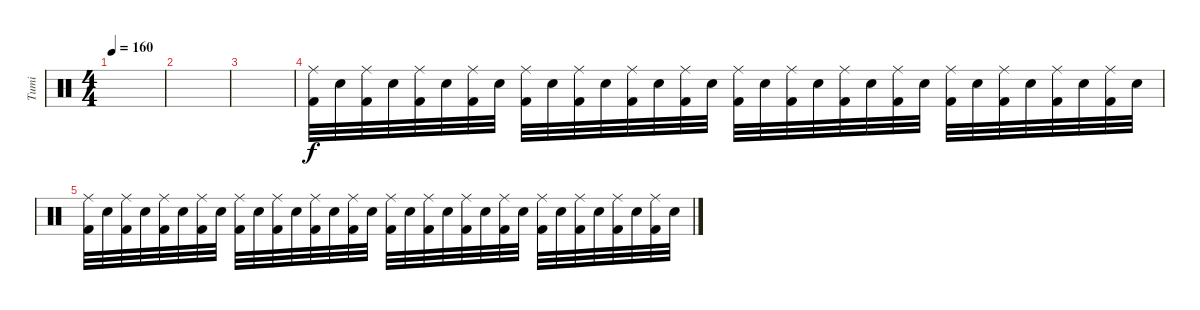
\track ("Tumi" "Tumi") {instrument percussion}
\staff {score}
\articulation defaults
\ts (4 4)
\tempo 160
\clef neutral
\ks c
|
|
|
("Ride (middle)" "Kick (hit) 2").32 "Electric Snare (hit)".32 ("Ride (middle)" "Kick (hit) 2").32 "Electric Snare (hit)".32 ("Ride (middle)" "Kick (hit) 2").32 "Electric Snare (hit)".32 ("Ride (middle)" "Kick (hit) 2").32 "Electric Snare (hit)".32 ("Ride (middle)" "Kick (hit) 2").32 "Electric Snare (hit)".32 ("Ride (middle)" "Kick (hit) 2").32 "Electric Snare (hit)".32 ("Ride (middle)" "Kick (hit) 2").32 "Electric Snare (hit)".32 ("Ride (middle)" "Kick (hit) 2").32 "Electric Snare (hit)".32 ("Ride (middle)" "Kick (hit) 2").32 "Electric Snare (hit)".32 ("Ride (middle)" "Kick (hit) 2").32 "Electric Snare (hit)".32 ("Ride (middle)" "Kick (hit) 2").32 "Electric Snare (hit)".32 ("Ride (middle)" "Kick (hit) 2").32 "Electric Snare (hit)".32 ("Ride (middle)" "Kick (hit) 2").32 "Electric Snare (hit)".32 ("Ride (middle)" "Kick (hit) 2").32 "Electric Snare (hit)".32 ("Ride (middle)" "Kick (hit) 2").32 "Electric Snare (hit)".32 ("Ride (middle)" "Kick (hit) 2").32 "Electric Snare (hit)".32 |
("Ride (middle)" "Kick (hit) 2").32 "Electric Snare (hit)".32 ("Ride (middle)" "Kick (hit) 2").32 "Electric Snare (hit)".32 ("Ride (middle)" "Kick (hit) 2").32 "Electric Snare (hit)".32 ("Ride (middle)" "Kick (hit) 2").32 "Electric Snare (hit)".32 ("Ride (middle)" "Kick (hit) 2").32 "Electric Snare (hit)".32 ("Ride (middle)" "Kick (hit) 2").32 "Electric Snare (hit)".32 ("Ride (middle)" "Kick (hit) 2").32 "Electric Snare (hit)".32 ("Ride (middle)" "Kick (hit) 2").32 "Electric Snare (hit)".32 ("Ride (middle)" "Kick (hit) 2").32 "Electric Snare (hit)".32 ("Ride (middle)" "Kick (hit) 2").32 "Electric Snare (hit)".32 ("Ride (middle)" "Kick (hit) 2").32 "Electric Snare (hit)".32 ("Ride (middle)" "Kick (hit) 2").32 "Electric Snare (hit)".32 ("Ride (middle)" "Kick (hit) 2").32 "Electric Snare (hit)".32 ("Ride (middle)" "Kick (hit) 2").32 "Electric Snare (hit)".32 ("Ride (middle)" "Kick (hit) 2").32 "Electric Snare (hit)".32 ("Ride (middle)" "Kick (hit) 2").32 "Electric Snare (hit)".32
